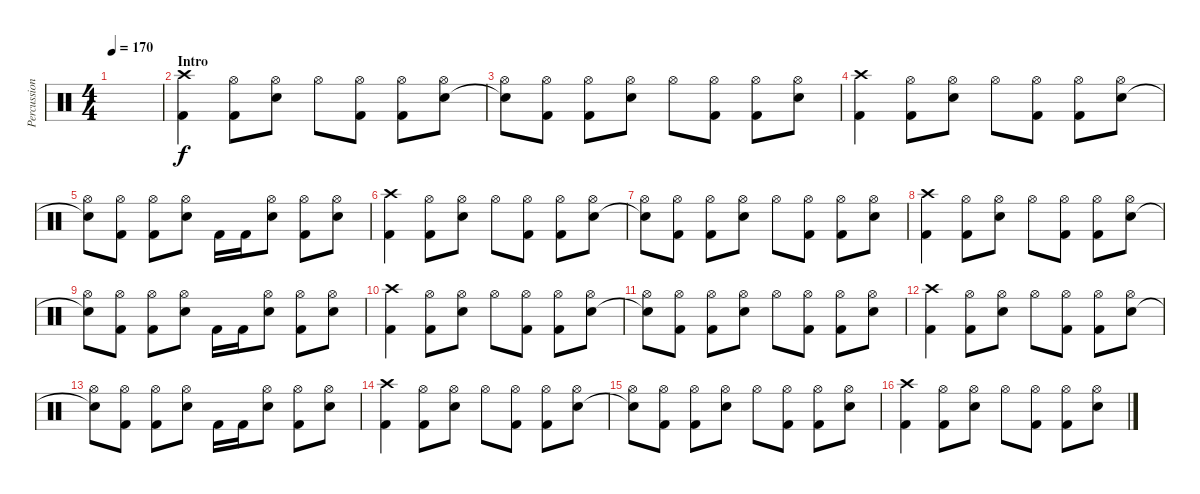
\track ("Percussion" "Percussion") {instrument percussion}
\staff {score}
\articulation defaults
\ts (4 4)
\tempo 170
\clef neutral
\ks c
|
\section ("" "Intro")
("Kick (hit) 2" "Crash high (hit)").4 ("Kick (hit) 2" "Hi-Hat (open)").8 ("Electric Snare (hit)" "Hi-Hat (open)").8 "Hi-Hat (open)".8 ("Kick (hit) 2" "Hi-Hat (open)").8 ("Kick (hit) 2" "Hi-Hat (open)").8 ("Electric Snare (hit)" "Hi-Hat (open)").8 |
("Snare (hit)"{t} "Hi-Hat (open)").8 ("Kick (hit) 2" "Hi-Hat (open)").8 ("Kick (hit) 2" "Hi-Hat (open)").8 ("Electric Snare (hit)" "Hi-Hat (open)").8 "Hi-Hat (open)".8 ("Kick (hit) 2" "Hi-Hat (open)").8 ("Kick (hit) 2" "Hi-Hat (open)").8 ("Electric Snare (hit)" "Hi-Hat (open)").8 |
("Kick (hit) 2" "Crash high (hit)").4 ("Kick (hit) 2" "Hi-Hat (open)").8 ("Electric Snare (hit)" "Hi-Hat (open)").8 "Hi-Hat (open)".8 ("Kick (hit) 2" "Hi-Hat (open)").8 ("Kick (hit) 2" "Hi-Hat (open)").8 ("Electric Snare (hit)" "Hi-Hat (open)").8 |
("Snare (hit)"{t} "Hi-Hat (open)").8 ("Kick (hit) 2" "Hi-Hat (open)").8 ("Kick (hit) 2" "Hi-Hat (open)").8 ("Electric Snare (hit)" "Hi-Hat (open)").8 "Kick (hit) 2".16 "Kick (hit) 2".16 ("Electric Snare (hit)" "Hi-Hat (open)").8 ("Kick (hit) 2" "Hi-Hat (open)").8 ("Electric Snare (hit)" "Hi-Hat (open)").8 |
("Kick (hit) 2" "Crash high (hit)").4 ("Kick (hit) 2" "Hi-Hat (open)").8 ("Electric Snare (hit)" "Hi-Hat (open)").8 "Hi-Hat (open)".8 ("Kick (hit) 2" "Hi-Hat (open)").8 ("Kick (hit) 2" "Hi-Hat (open)").8 ("Electric Snare (hit)" "Hi-Hat (open)").8 |
("Snare (hit)"{t} "Hi-Hat (open)").8 ("Kick (hit) 2" "Hi-Hat (open)").8 ("Kick (hit) 2" "Hi-Hat (open)").8 ("Electric Snare (hit)" "Hi-Hat (open)").8 "Hi-Hat (open)".8 ("Kick (hit) 2" "Hi-Hat (open)").8 ("Kick (hit) 2" "Hi-Hat (open)").8 ("Electric Snare (hit)" "Hi-Hat (open)").8 |
("Kick (hit) 2" "Crash high (hit)").4 ("Kick (hit) 2" "Hi-Hat (open)").8 ("Electric Snare (hit)" "Hi-Hat (open)").8 "Hi-Hat (open)".8 ("Kick (hit) 2" "Hi-Hat (open)").8 ("Kick (hit) 2" "Hi-Hat (open)").8 ("Electric Snare (hit)" "Hi-Hat (open)").8 |
("Snare (hit)"{t} "Hi-Hat (open)").8 ("Kick (hit) 2" "Hi-Hat (open)").8 ("Kick (hit) 2" "Hi-Hat (open)").8 ("Electric Snare (hit)" "Hi-Hat (open)").8 "Kick (hit) 2".16 "Kick (hit) 2".16 ("Electric Snare (hit)" "Hi-Hat (open)").8 ("Kick (hit) 2" "Hi-Hat (open)").8 ("Electric Snare (hit)" "Hi-Hat (open)").8 |
("Kick (hit) 2" "Crash high (hit)").4 ("Kick (hit) 2" "Hi-Hat (open)").8 ("Electric Snare (hit)" "Hi-Hat (open)").8 "Hi-Hat (open)".8 ("Kick (hit) 2" "Hi-Hat (open)").8 ("Kick (hit) 2" "Hi-Hat (open)").8 ("Electric Snare (hit)" "Hi-Hat (open)").8 |
("Snare (hit)"{t} "Hi-Hat (open)").8 ("Kick (hit) 2" "Hi-Hat (open)").8 ("Kick (hit) 2" "Hi-Hat (open)").8 ("Electric Snare (hit)" "Hi-Hat (open)").8 "Hi-Hat (open)".8 ("Kick (hit) 2" "Hi-Hat (open)").8 ("Kick (hit) 2" "Hi-Hat (open)").8 ("Electric Snare (hit)" "Hi-Hat (open)").8 |
("Kick (hit) 2" "Crash high (hit)").4 ("Kick (hit) 2" "Hi-Hat (open)").8 ("Electric Snare (hit)" "Hi-Hat (open)").8 "Hi-Hat (open)".8 ("Kick (hit) 2" "Hi-Hat (open)").8 ("Kick (hit) 2" "Hi-Hat (open)").8 ("Electric Snare (hit)" "Hi-Hat (open)").8 |
("Snare (hit)"{t} "Hi-Hat (open)").8 ("Kick (hit) 2" "Hi-Hat (open)").8 ("Kick (hit) 2" "Hi-Hat (open)").8 ("Electric Snare (hit)" "Hi-Hat (open)").8 "Kick (hit) 2".16 "Kick (hit) 2".16 ("Electric Snare (hit)" "Hi-Hat (open)").8 ("Kick (hit) 2" "Hi-Hat (open)").8 ("Electric Snare (hit)" "Hi-Hat (open)").8 |
("Kick (hit) 2" "Crash high (hit)").4 ("Kick (hit) 2" "Hi-Hat (open)").8 ("Electric Snare (hit)" "Hi-Hat (open)").8 "Hi-Hat (open)".8 ("Kick (hit) 2" "Hi-Hat (open)").8 ("Kick (hit) 2" "Hi-Hat (open)").8 ("Electric Snare (hit)" "Hi-Hat (open)").8 |
("Snare (hit)"{t} "Hi-Hat (open)").8 ("Kick (hit) 2" "Hi-Hat (open)").8 ("Kick (hit) 2" "Hi-Hat (open)").8 ("Electric Snare (hit)" "Hi-Hat (open)").8 "Hi-Hat (open)".8 ("Kick (hit) 2" "Hi-Hat (open)").8 ("Kick (hit) 2" "Hi-Hat (open)").8 ("Electric Snare (hit)" "Hi-Hat (open)").8 |
("Kick (hit) 2" "Crash high (hit)").4 ("Kick (hit) 2" "Hi-Hat (open)").8 ("Electric Snare (hit)" "Hi-Hat (open)").8 "Hi-Hat (open)".8 ("Kick (hit) 2" "Hi-Hat (open)").8 ("Kick (hit) 2" "Hi-Hat (open)").8 ("Electric Snare (hit)" "Hi-Hat (open)").8
